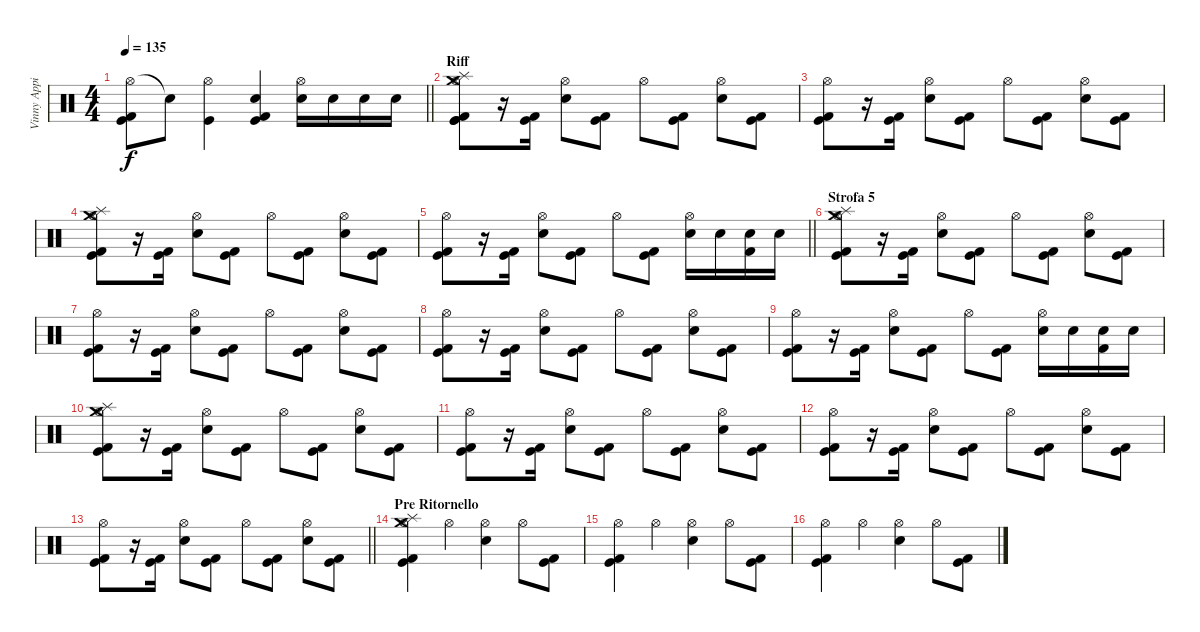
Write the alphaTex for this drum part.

\track ("Vinny Appice" "Vinny Appi") {instrument percussion}
\staff {score}
\articulation defaults
\ts (4 4)
\tempo 135
\clef neutral
\barLineRight lightlight
\ks c
("Hi-Hat (open)" "Kick (hit)" "Kick (hit) 2").8{dy f} "Snare (hit)"{t}.8 ("Hi-Hat (open)" "Kick (hit)").4 ("Kick (hit)" "Kick (hit) 2" "Snare (hit) 2").4 ("Hi-Hat (open)" "Snare (hit) 2").16 "Snare (hit) 2".16 "Snare (hit) 2".16 "Snare (hit) 2".16 |
\section ("" "Riff")
("Hi-Hat (open)" "Kick (hit)" "Kick (hit) 2" "Splash (hit)" "Crash medium (hit)" "Kick (hit)").8 r.16 ("Kick (hit)" "Kick (hit) 2").16 ("Hi-Hat (open)" "Snare (hit) 2").8 ("Kick (hit)" "Kick (hit) 2").8 "Hi-Hat (open)".8 ("Kick (hit)" "Kick (hit) 2").8 ("Hi-Hat (open)" "Snare (hit) 2").8 ("Kick (hit) 2" "Kick (hit)").8 |
("Hi-Hat (open)" "Kick (hit)" "Kick (hit) 2").8 r.16 ("Kick (hit)" "Kick (hit) 2").16 ("Hi-Hat (open)" "Snare (hit) 2").8 ("Kick (hit)" "Kick (hit) 2").8 "Hi-Hat (open)".8 ("Kick (hit)" "Kick (hit) 2").8 ("Hi-Hat (open)" "Snare (hit) 2").8 ("Kick (hit) 2" "Kick (hit)").8 |
("Hi-Hat (open)" "Kick (hit)" "Kick (hit) 2" "Splash (hit)" "Crash medium (hit)").8 r.16 ("Kick (hit)" "Kick (hit) 2").16 ("Hi-Hat (open)" "Snare (hit) 2").8 ("Kick (hit)" "Kick (hit) 2").8 "Hi-Hat (open)".8 ("Kick (hit)" "Kick (hit) 2").8 ("Hi-Hat (open)" "Snare (hit) 2").8 ("Kick (hit) 2" "Kick (hit)").8 |
\barLineRight lightlight
("Hi-Hat (open)" "Kick (hit)" "Kick (hit) 2").8 r.16 ("Kick (hit)" "Kick (hit) 2").16 ("Hi-Hat (open)" "Snare (hit) 2").8 ("Kick (hit)" "Kick (hit) 2").8 "Hi-Hat (open)".8 ("Kick (hit)" "Kick (hit) 2").8 ("Hi-Hat (open)" "Snare (hit) 2").16 "Snare (hit) 2".16 ("Kick (hit) 2" "Snare (hit) 2").16 "Snare (hit) 2".16 |
\section ("" "Strofa 5")
("Hi-Hat (open)" "Kick (hit)" "Kick (hit) 2" "Splash (hit)" "Crash medium (hit)").8 r.16 ("Kick (hit)" "Kick (hit) 2").16 ("Hi-Hat (open)" "Snare (hit) 2").8 ("Kick (hit)" "Kick (hit) 2").8 "Hi-Hat (open)".8 ("Kick (hit)" "Kick (hit) 2").8 ("Hi-Hat (open)" "Snare (hit) 2").8 ("Kick (hit) 2" "Kick (hit)").8 |
("Hi-Hat (open)" "Kick (hit)" "Kick (hit) 2").8 r.16 ("Kick (hit)" "Kick (hit) 2").16 ("Hi-Hat (open)" "Snare (hit) 2").8 ("Kick (hit)" "Kick (hit) 2").8 "Hi-Hat (open)".8 ("Kick (hit)" "Kick (hit) 2").8 ("Hi-Hat (open)" "Snare (hit) 2").8 ("Kick (hit) 2" "Kick (hit)").8 |
("Hi-Hat (open)" "Kick (hit)" "Kick (hit) 2").8 r.16 ("Kick (hit)" "Kick (hit) 2").16 ("Hi-Hat (open)" "Snare (hit) 2").8 ("Kick (hit)" "Kick (hit) 2").8 "Hi-Hat (open)".8 ("Kick (hit)" "Kick (hit) 2").8 ("Hi-Hat (open)" "Snare (hit) 2").8 ("Kick (hit) 2" "Kick (hit)").8 |
("Hi-Hat (open)" "Kick (hit)" "Kick (hit) 2").8 r.16 ("Kick (hit)" "Kick (hit) 2").16 ("Hi-Hat (open)" "Snare (hit) 2").8 ("Kick (hit)" "Kick (hit) 2").8 "Hi-Hat (open)".8 ("Kick (hit)" "Kick (hit) 2").8 ("Hi-Hat (open)" "Snare (hit) 2").16 "Snare (hit) 2".16 ("Kick (hit) 2" "Snare (hit) 2").16 "Snare (hit) 2".16 |
("Hi-Hat (open)" "Kick (hit)" "Kick (hit) 2" "Splash (hit)" "Crash medium (hit)").8 r.16 ("Kick (hit)" "Kick (hit) 2").16 ("Hi-Hat (open)" "Snare (hit) 2").8 ("Kick (hit)" "Kick (hit) 2").8 "Hi-Hat (open)".8 ("Kick (hit)" "Kick (hit) 2").8 ("Hi-Hat (open)" "Snare (hit) 2").8 ("Kick (hit) 2" "Kick (hit)").8 |
("Hi-Hat (open)" "Kick (hit)" "Kick (hit) 2").8 r.16 ("Kick (hit)" "Kick (hit) 2").16 ("Hi-Hat (open)" "Snare (hit) 2").8 ("Kick (hit)" "Kick (hit) 2").8 "Hi-Hat (open)".8 ("Kick (hit)" "Kick (hit) 2").8 ("Hi-Hat (open)" "Snare (hit) 2").8 ("Kick (hit) 2" "Kick (hit)").8 |
("Hi-Hat (open)" "Kick (hit)" "Kick (hit) 2").8 r.16 ("Kick (hit)" "Kick (hit) 2").16 ("Hi-Hat (open)" "Snare (hit) 2").8 ("Kick (hit)" "Kick (hit) 2").8 "Hi-Hat (open)".8 ("Kick (hit)" "Kick (hit) 2").8 ("Hi-Hat (open)" "Snare (hit) 2").8 ("Kick (hit) 2" "Kick (hit)").8 |
\barLineRight lightlight
("Hi-Hat (open)" "Kick (hit)" "Kick (hit) 2").8 r.16 ("Kick (hit)" "Kick (hit) 2").16 ("Hi-Hat (open)" "Snare (hit) 2").8 ("Kick (hit)" "Kick (hit) 2").8 "Hi-Hat (open)".8 ("Kick (hit)" "Kick (hit) 2").8 ("Hi-Hat (open)" "Snare (hit) 2").8 ("Kick (hit) 2" "Kick (hit)").8 |
\section ("" "Pre Ritornello")
("Hi-Hat (open)" "Splash (hit)" "Crash medium (hit)" "Kick (hit)" "Kick (hit) 2").4 "Hi-Hat (open)".4 ("Hi-Hat (open)" "Snare (hit) 2").4 "Hi-Hat (open)".8 ("Kick (hit)" "Kick (hit) 2").8 |
("Hi-Hat (open)" "Kick (hit)" "Kick (hit) 2").4 "Hi-Hat (open)".4 ("Hi-Hat (open)" "Snare (hit) 2").4 "Hi-Hat (open)".8 ("Kick (hit)" "Kick (hit) 2").8 |
("Hi-Hat (open)" "Kick (hit)" "Kick (hit) 2").4 "Hi-Hat (open)".4 ("Hi-Hat (open)" "Snare (hit) 2").4 "Hi-Hat (open)".8 ("Kick (hit)" "Kick (hit) 2").8
